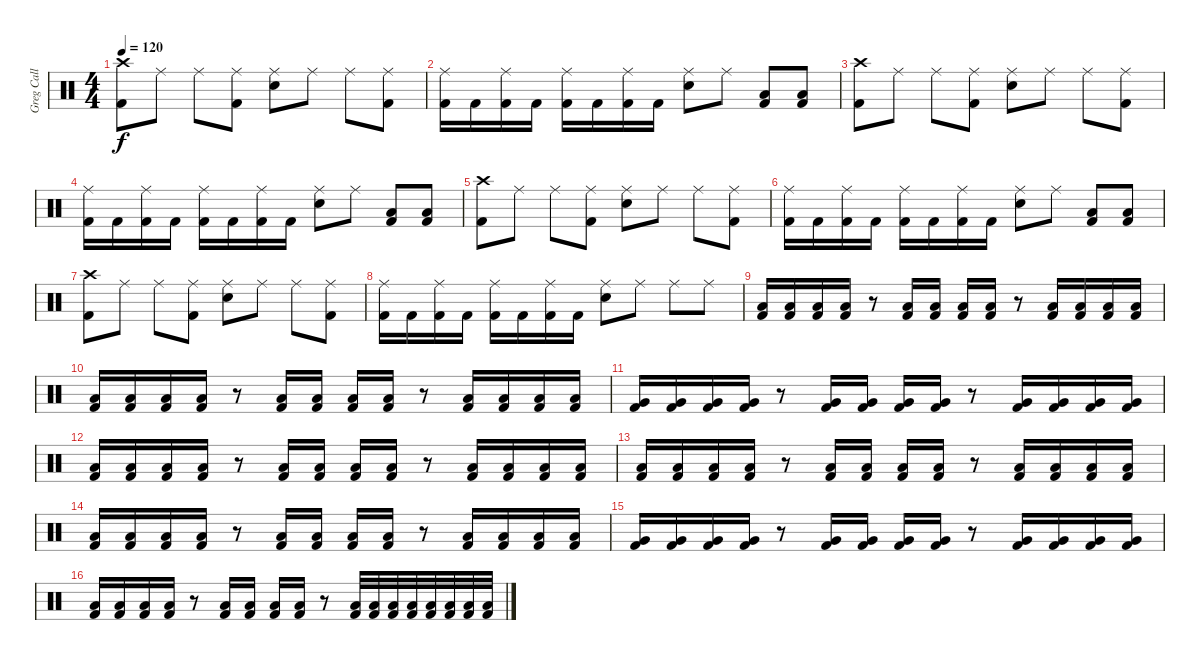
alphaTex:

\track ("Greg Call" "Greg Call") {instrument percussion}
\staff {score}
\articulation defaults
\ts (4 4)
\tempo 120
\clef neutral
\ks c
("Crash high (hit)" "Kick (hit) 2").8{dy f} "Ride (middle)".8 "Ride (middle)".8 ("Ride (middle)" "Kick (hit) 2").8 ("Ride (middle)" "Snare (hit) 2").8 "Ride (middle)".8 "Ride (middle)".8 ("Ride (middle)" "Kick (hit) 2").8 |
("Ride (middle)" "Kick (hit) 2").16 "Kick (hit) 2".16 ("Ride (middle)" "Kick (hit) 2").16 "Kick (hit) 2".16 ("Ride (middle)" "Kick (hit) 2").16 "Kick (hit) 2".16 ("Ride (middle)" "Kick (hit) 2").16 "Kick (hit) 2".16 ("Ride (middle)" "Snare (hit) 2").8 "Ride (middle)".8 ("Low Floor Tom (hit)" "Kick (hit) 2").8 ("Low Floor Tom (hit)" "Kick (hit) 2").8 |
("Crash high (hit)" "Kick (hit) 2").8 "Ride (middle)".8 "Ride (middle)".8 ("Ride (middle)" "Kick (hit) 2").8 ("Ride (middle)" "Snare (hit) 2").8 "Ride (middle)".8 "Ride (middle)".8 ("Ride (middle)" "Kick (hit) 2").8 |
("Ride (middle)" "Kick (hit) 2").16 "Kick (hit) 2".16 ("Ride (middle)" "Kick (hit) 2").16 "Kick (hit) 2".16 ("Ride (middle)" "Kick (hit) 2").16 "Kick (hit) 2".16 ("Ride (middle)" "Kick (hit) 2").16 "Kick (hit) 2".16 ("Ride (middle)" "Snare (hit) 2").8 "Ride (middle)".8 ("Low Floor Tom (hit)" "Kick (hit) 2").8 ("Low Floor Tom (hit)" "Kick (hit) 2").8 |
("Crash high (hit)" "Kick (hit) 2").8 "Ride (middle)".8 "Ride (middle)".8 ("Ride (middle)" "Kick (hit) 2").8 ("Ride (middle)" "Snare (hit) 2").8 "Ride (middle)".8 "Ride (middle)".8 ("Ride (middle)" "Kick (hit) 2").8 |
("Ride (middle)" "Kick (hit) 2").16 "Kick (hit) 2".16 ("Ride (middle)" "Kick (hit) 2").16 "Kick (hit) 2".16 ("Ride (middle)" "Kick (hit) 2").16 "Kick (hit) 2".16 ("Ride (middle)" "Kick (hit) 2").16 "Kick (hit) 2".16 ("Ride (middle)" "Snare (hit) 2").8 "Ride (middle)".8 ("Low Floor Tom (hit)" "Kick (hit) 2").8 ("Low Floor Tom (hit)" "Kick (hit) 2").8 |
("Crash high (hit)" "Kick (hit) 2").8 "Ride (middle)".8 "Ride (middle)".8 ("Ride (middle)" "Kick (hit) 2").8 ("Ride (middle)" "Snare (hit) 2").8 "Ride (middle)".8 "Ride (middle)".8 ("Ride (middle)" "Kick (hit) 2").8 |
("Ride (middle)" "Kick (hit) 2").16 "Kick (hit) 2".16 ("Ride (middle)" "Kick (hit) 2").16 "Kick (hit) 2".16 ("Ride (middle)" "Kick (hit) 2").16 "Kick (hit) 2".16 ("Ride (middle)" "Kick (hit) 2").16 "Kick (hit) 2".16 ("Ride (middle)" "Snare (hit) 2").8 "Ride (middle)".8 "Ride (middle)".8 "Ride (middle)".8 |
("Low Floor Tom (hit)" "Kick (hit) 2").16{volume 14} ("Low Floor Tom (hit)" "Kick (hit) 2").16 ("Low Floor Tom (hit)" "Kick (hit) 2").16 ("Low Floor Tom (hit)" "Kick (hit) 2").16 r.8 ("Low Floor Tom (hit)" "Kick (hit) 2").16 ("Low Floor Tom (hit)" "Kick (hit) 2").16 ("Low Floor Tom (hit)" "Kick (hit) 2").16 ("Low Floor Tom (hit)" "Kick (hit) 2").16 r.8 ("Low Floor Tom (hit)" "Kick (hit) 2").16 ("Low Floor Tom (hit)" "Kick (hit) 2").16 ("Low Floor Tom (hit)" "Kick (hit) 2").16 ("Low Floor Tom (hit)" "Kick (hit) 2").16 |
("Low Floor Tom (hit)" "Kick (hit) 2").16 ("Low Floor Tom (hit)" "Kick (hit) 2").16 ("Low Floor Tom (hit)" "Kick (hit) 2").16 ("Low Floor Tom (hit)" "Kick (hit) 2").16 r.8 ("Low Floor Tom (hit)" "Kick (hit) 2").16 ("Low Floor Tom (hit)" "Kick (hit) 2").16 ("Low Floor Tom (hit)" "Kick (hit) 2").16 ("Low Floor Tom (hit)" "Kick (hit) 2").16 r.8 ("Low Floor Tom (hit)" "Kick (hit) 2").16 ("Low Floor Tom (hit)" "Kick (hit) 2").16 ("Low Floor Tom (hit)" "Kick (hit) 2").16 ("Low Floor Tom (hit)" "Kick (hit) 2").16 |
("Very Low Tom (hit)" "Kick (hit) 2").16 ("Very Low Tom (hit)" "Kick (hit) 2").16 ("Very Low Tom (hit)" "Kick (hit) 2").16 ("Very Low Tom (hit)" "Kick (hit) 2").16 r.8 ("Very Low Tom (hit)" "Kick (hit) 2").16 ("Very Low Tom (hit)" "Kick (hit) 2").16 ("Very Low Tom (hit)" "Kick (hit) 2").16 ("Very Low Tom (hit)" "Kick (hit) 2").16 r.8 ("Very Low Tom (hit)" "Kick (hit) 2").16 ("Very Low Tom (hit)" "Kick (hit) 2").16 ("Very Low Tom (hit)" "Kick (hit) 2").16 ("Very Low Tom (hit)" "Kick (hit) 2").16 |
("Low Tom (hit)" "Kick (hit) 2").16 ("Low Tom (hit)" "Kick (hit) 2").16 ("Low Tom (hit)" "Kick (hit) 2").16 ("Low Tom (hit)" "Kick (hit) 2").16 r.8 ("Low Tom (hit)" "Kick (hit) 2").16 ("Low Tom (hit)" "Kick (hit) 2").16 ("Low Tom (hit)" "Kick (hit) 2").16 ("Low Tom (hit)" "Kick (hit) 2").16 r.8 ("Low Tom (hit)" "Kick (hit) 2").16 ("Low Tom (hit)" "Kick (hit) 2").16 ("Low Tom (hit)" "Kick (hit) 2").16 ("Low Tom (hit)" "Kick (hit) 2").16 |
("Low Floor Tom (hit)" "Kick (hit) 2").16{volume 14} ("Low Floor Tom (hit)" "Kick (hit) 2").16 ("Low Floor Tom (hit)" "Kick (hit) 2").16 ("Low Floor Tom (hit)" "Kick (hit) 2").16 r.8 ("Low Floor Tom (hit)" "Kick (hit) 2").16 ("Low Floor Tom (hit)" "Kick (hit) 2").16 ("Low Floor Tom (hit)" "Kick (hit) 2").16 ("Low Floor Tom (hit)" "Kick (hit) 2").16 r.8 ("Low Floor Tom (hit)" "Kick (hit) 2").16 ("Low Floor Tom (hit)" "Kick (hit) 2").16 ("Low Floor Tom (hit)" "Kick (hit) 2").16 ("Low Floor Tom (hit)" "Kick (hit) 2").16 |
("Low Floor Tom (hit)" "Kick (hit) 2").16 ("Low Floor Tom (hit)" "Kick (hit) 2").16 ("Low Floor Tom (hit)" "Kick (hit) 2").16 ("Low Floor Tom (hit)" "Kick (hit) 2").16 r.8 ("Low Floor Tom (hit)" "Kick (hit) 2").16 ("Low Floor Tom (hit)" "Kick (hit) 2").16 ("Low Floor Tom (hit)" "Kick (hit) 2").16 ("Low Floor Tom (hit)" "Kick (hit) 2").16 r.8 ("Low Floor Tom (hit)" "Kick (hit) 2").16 ("Low Floor Tom (hit)" "Kick (hit) 2").16 ("Low Floor Tom (hit)" "Kick (hit) 2").16 ("Low Floor Tom (hit)" "Kick (hit) 2").16 |
("Very Low Tom (hit)" "Kick (hit) 2").16 ("Very Low Tom (hit)" "Kick (hit) 2").16 ("Very Low Tom (hit)" "Kick (hit) 2").16 ("Very Low Tom (hit)" "Kick (hit) 2").16 r.8 ("Very Low Tom (hit)" "Kick (hit) 2").16 ("Very Low Tom (hit)" "Kick (hit) 2").16 ("Very Low Tom (hit)" "Kick (hit) 2").16 ("Very Low Tom (hit)" "Kick (hit) 2").16 r.8 ("Very Low Tom (hit)" "Kick (hit) 2").16 ("Very Low Tom (hit)" "Kick (hit) 2").16 ("Very Low Tom (hit)" "Kick (hit) 2").16 ("Very Low Tom (hit)" "Kick (hit) 2").16 |
("Low Tom (hit)" "Kick (hit) 2").16 ("Low Tom (hit)" "Kick (hit) 2").16 ("Low Tom (hit)" "Kick (hit) 2").16 ("Low Tom (hit)" "Kick (hit) 2").16 r.8 ("Low Tom (hit)" "Kick (hit) 2").16 ("Low Tom (hit)" "Kick (hit) 2").16 ("Low Tom (hit)" "Kick (hit) 2").16 ("Low Tom (hit)" "Kick (hit) 2").16 r.8 ("Low Tom (hit)" "Kick (hit) 2").32 ("Low Tom (hit)" "Kick (hit) 2").32 ("Low Tom (hit)" "Kick (hit) 2").32 ("Low Tom (hit)" "Kick (hit) 2").32 ("Low Tom (hit)" "Kick (hit) 2").32 ("Low Tom (hit)" "Kick (hit) 2").32 ("Low Tom (hit)" "Kick (hit) 2").32 ("Low Tom (hit)" "Kick (hit) 2").32
